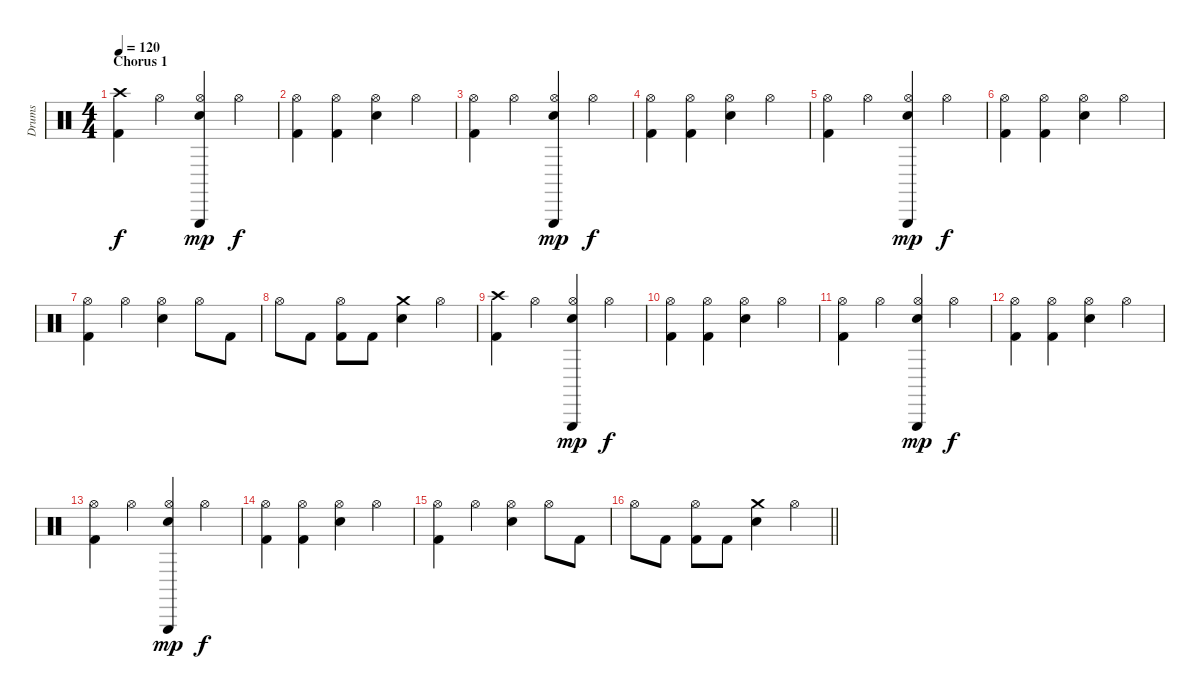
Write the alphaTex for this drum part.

\track ("Drums" "Drums") {instrument percussion}
\staff {score}
\articulation defaults
\ts (4 4)
\section ("" "Chorus 1")
\tempo 120
\clef neutral
\ks c
("Crash high (hit)" "Kick (hit) 2").4{dy f} "Hi-Hat (open)".4 ("Hi-Hat (open)" "Snare (hit) 2" "Triangle (hit)").4{dy mp} "Hi-Hat (open)".4{dy f} |
("Hi-Hat (open)" "Kick (hit) 2").4 ("Hi-Hat (open)" "Kick (hit) 2").4 ("Hi-Hat (open)" "Snare (hit) 2").4 "Hi-Hat (open)".4 |
("Hi-Hat (open)" "Kick (hit) 2").4 "Hi-Hat (open)".4 ("Hi-Hat (open)" "Snare (hit) 2" "Triangle (hit)").4{dy mp} "Hi-Hat (open)".4{dy f} |
("Hi-Hat (open)" "Kick (hit) 2").4 ("Hi-Hat (open)" "Kick (hit) 2").4 ("Hi-Hat (open)" "Snare (hit) 2").4 "Hi-Hat (open)".4 |
("Hi-Hat (open)" "Kick (hit) 2").4 "Hi-Hat (open)".4 ("Hi-Hat (open)" "Snare (hit) 2" "Triangle (hit)").4{dy mp} "Hi-Hat (open)".4{dy f} |
("Hi-Hat (open)" "Kick (hit) 2").4 ("Hi-Hat (open)" "Kick (hit) 2").4 ("Hi-Hat (open)" "Snare (hit) 2").4 "Hi-Hat (open)".4 |
("Hi-Hat (open)" "Kick (hit) 2").4 "Hi-Hat (open)".4 ("Hi-Hat (open)" "Snare (hit) 2").4 "Hi-Hat (open)".8 "Kick (hit) 2".8 |
"Hi-Hat (open)".8 "Kick (hit) 2".8 ("Hi-Hat (open)" "Kick (hit) 2").8 "Kick (hit) 2".8 ("Crash medium (hit)" "Snare (hit) 2").4 "Hi-Hat (open)".4 |
("Crash high (hit)" "Kick (hit) 2").4 "Hi-Hat (open)".4 ("Hi-Hat (open)" "Snare (hit) 2" "Triangle (hit)").4{dy mp} "Hi-Hat (open)".4{dy f} |
("Hi-Hat (open)" "Kick (hit) 2").4 ("Hi-Hat (open)" "Kick (hit) 2").4 ("Hi-Hat (open)" "Snare (hit) 2").4 "Hi-Hat (open)".4 |
("Hi-Hat (open)" "Kick (hit) 2").4 "Hi-Hat (open)".4 ("Hi-Hat (open)" "Snare (hit) 2" "Triangle (hit)").4{dy mp} "Hi-Hat (open)".4{dy f} |
("Hi-Hat (open)" "Kick (hit) 2").4 ("Hi-Hat (open)" "Kick (hit) 2").4 ("Hi-Hat (open)" "Snare (hit) 2").4 "Hi-Hat (open)".4 |
("Hi-Hat (open)" "Kick (hit) 2").4 "Hi-Hat (open)".4 ("Hi-Hat (open)" "Snare (hit) 2" "Triangle (hit)").4{dy mp} "Hi-Hat (open)".4{dy f} |
("Hi-Hat (open)" "Kick (hit) 2").4 ("Hi-Hat (open)" "Kick (hit) 2").4 ("Hi-Hat (open)" "Snare (hit) 2").4 "Hi-Hat (open)".4 |
("Hi-Hat (open)" "Kick (hit) 2").4 "Hi-Hat (open)".4 ("Hi-Hat (open)" "Snare (hit) 2").4 "Hi-Hat (open)".8 "Kick (hit) 2".8 |
\barLineRight lightlight "Hi-Hat (open)".8 "Kick (hit) 2".8
("Hi-Hat (open)" "Kick (hit) 2").8 "Kick (hit) 2".8 ("Crash medium (hit)" "Snare (hit) 2").4 "Hi-Hat (open)".4
